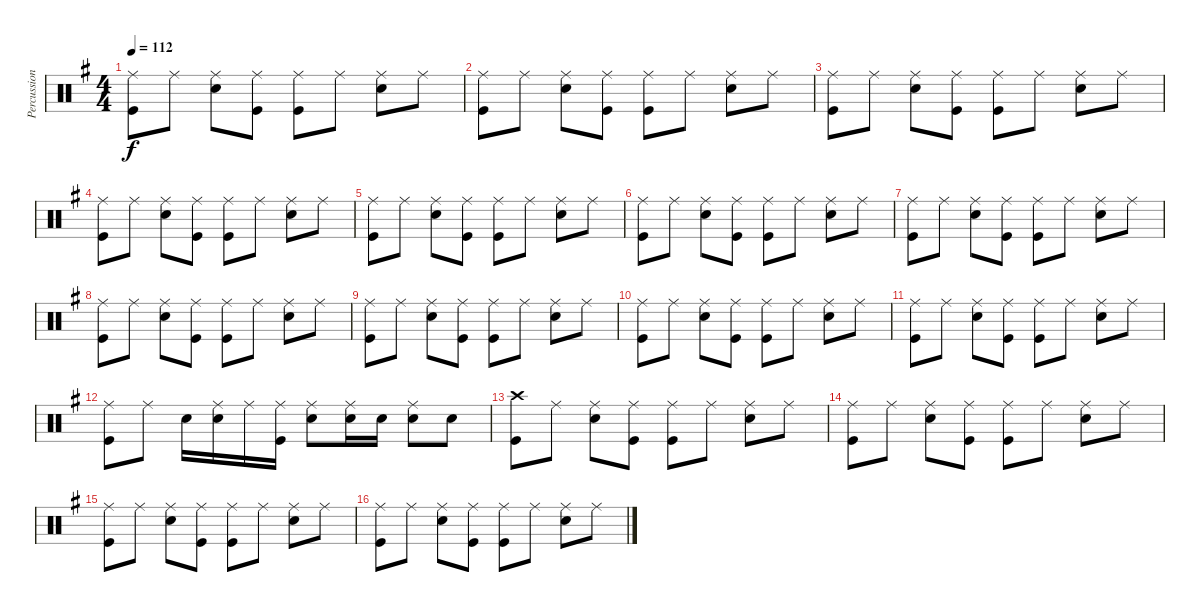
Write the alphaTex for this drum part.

\track ("Percussion" "Percussion") {instrument percussion}
\staff {score}
\articulation defaults
\ts (4 4)
\tempo 112
\clef neutral
\ks g
("Ride (middle)" "Kick (hit)").8{dy f} "Ride (middle)".8 ("Ride (middle)" "Snare (hit) 2").8 ("Ride (middle)" "Kick (hit)").8 ("Ride (middle)" "Kick (hit)").8 "Ride (middle)".8 ("Ride (middle)" "Snare (hit) 2").8 "Ride (middle)".8 |
("Ride (middle)" "Kick (hit)").8 "Ride (middle)".8 ("Ride (middle)" "Snare (hit) 2").8 ("Ride (middle)" "Kick (hit)").8 ("Ride (middle)" "Kick (hit)").8 "Ride (middle)".8 ("Ride (middle)" "Snare (hit) 2").8 "Ride (middle)".8 |
("Ride (middle)" "Kick (hit)").8 "Ride (middle)".8 ("Ride (middle)" "Snare (hit) 2").8 ("Ride (middle)" "Kick (hit)").8 ("Ride (middle)" "Kick (hit)").8 "Ride (middle)".8 ("Ride (middle)" "Snare (hit) 2").8 "Ride (middle)".8 |
("Ride (middle)" "Kick (hit)").8 "Ride (middle)".8 ("Ride (middle)" "Snare (hit) 2").8 ("Ride (middle)" "Kick (hit)").8 ("Ride (middle)" "Kick (hit)").8 "Ride (middle)".8 ("Ride (middle)" "Snare (hit) 2").8 "Ride (middle)".8 |
("Ride (middle)" "Kick (hit)").8 "Ride (middle)".8 ("Ride (middle)" "Snare (hit) 2").8 ("Ride (middle)" "Kick (hit)").8 ("Ride (middle)" "Kick (hit)").8 "Ride (middle)".8 ("Ride (middle)" "Snare (hit) 2").8 "Ride (middle)".8 |
("Ride (middle)" "Kick (hit)").8 "Ride (middle)".8 ("Ride (middle)" "Snare (hit) 2").8 ("Ride (middle)" "Kick (hit)").8 ("Ride (middle)" "Kick (hit)").8 "Ride (middle)".8 ("Ride (middle)" "Snare (hit) 2").8 "Ride (middle)".8 |
("Ride (middle)" "Kick (hit)").8 "Ride (middle)".8 ("Ride (middle)" "Snare (hit) 2").8 ("Ride (middle)" "Kick (hit)").8 ("Ride (middle)" "Kick (hit)").8 "Ride (middle)".8 ("Ride (middle)" "Snare (hit) 2").8 "Ride (middle)".8 |
("Ride (middle)" "Kick (hit)").8 "Ride (middle)".8 ("Ride (middle)" "Snare (hit) 2").8 ("Ride (middle)" "Kick (hit)").8 ("Ride (middle)" "Kick (hit)").8 "Ride (middle)".8 ("Ride (middle)" "Snare (hit) 2").8 "Ride (middle)".8 |
("Ride (middle)" "Kick (hit)").8 "Ride (middle)".8 ("Ride (middle)" "Snare (hit) 2").8 ("Ride (middle)" "Kick (hit)").8 ("Ride (middle)" "Kick (hit)").8 "Ride (middle)".8 ("Ride (middle)" "Snare (hit) 2").8 "Ride (middle)".8 |
("Ride (middle)" "Kick (hit)").8 "Ride (middle)".8 ("Ride (middle)" "Snare (hit) 2").8 ("Ride (middle)" "Kick (hit)").8 ("Ride (middle)" "Kick (hit)").8 "Ride (middle)".8 ("Ride (middle)" "Snare (hit) 2").8 "Ride (middle)".8 |
("Ride (middle)" "Kick (hit)").8 "Ride (middle)".8 ("Ride (middle)" "Snare (hit) 2").8 ("Ride (middle)" "Kick (hit)").8 ("Ride (middle)" "Kick (hit)").8 "Ride (middle)".8 ("Ride (middle)" "Snare (hit) 2").8 "Ride (middle)".8 |
("Ride (middle)" "Kick (hit)").8 "Ride (middle)".8 "Snare (hit) 2".16 ("Ride (middle)" "Snare (hit) 2").16 "Ride (middle)".16 ("Ride (middle)" "Kick (hit)").16 ("Ride (middle)" "Snare (hit) 2").8 ("Ride (middle)" "Snare (hit) 2").16 "Snare (hit) 2".16 ("Ride (middle)" "Snare (hit) 2").8 "Snare (hit) 2".8 |
("Crash high (hit)" "Kick (hit)").8 "Ride (middle)".8 ("Ride (middle)" "Snare (hit) 2").8 ("Ride (middle)" "Kick (hit)").8 ("Ride (middle)" "Kick (hit)").8 "Ride (middle)".8 ("Ride (middle)" "Snare (hit) 2").8 "Ride (middle)".8 |
("Ride (middle)" "Kick (hit)").8 "Ride (middle)".8 ("Ride (middle)" "Snare (hit) 2").8 ("Ride (middle)" "Kick (hit)").8 ("Ride (middle)" "Kick (hit)").8 "Ride (middle)".8 ("Ride (middle)" "Snare (hit) 2").8 "Ride (middle)".8 |
("Ride (middle)" "Kick (hit)").8 "Ride (middle)".8 ("Ride (middle)" "Snare (hit) 2").8 ("Ride (middle)" "Kick (hit)").8 ("Ride (middle)" "Kick (hit)").8 "Ride (middle)".8 ("Ride (middle)" "Snare (hit) 2").8 "Ride (middle)".8 |
("Ride (middle)" "Kick (hit)").8 "Ride (middle)".8 ("Ride (middle)" "Snare (hit) 2").8 ("Ride (middle)" "Kick (hit)").8 ("Ride (middle)" "Kick (hit)").8 "Ride (middle)".8 ("Ride (middle)" "Snare (hit) 2").8 "Ride (middle)".8
